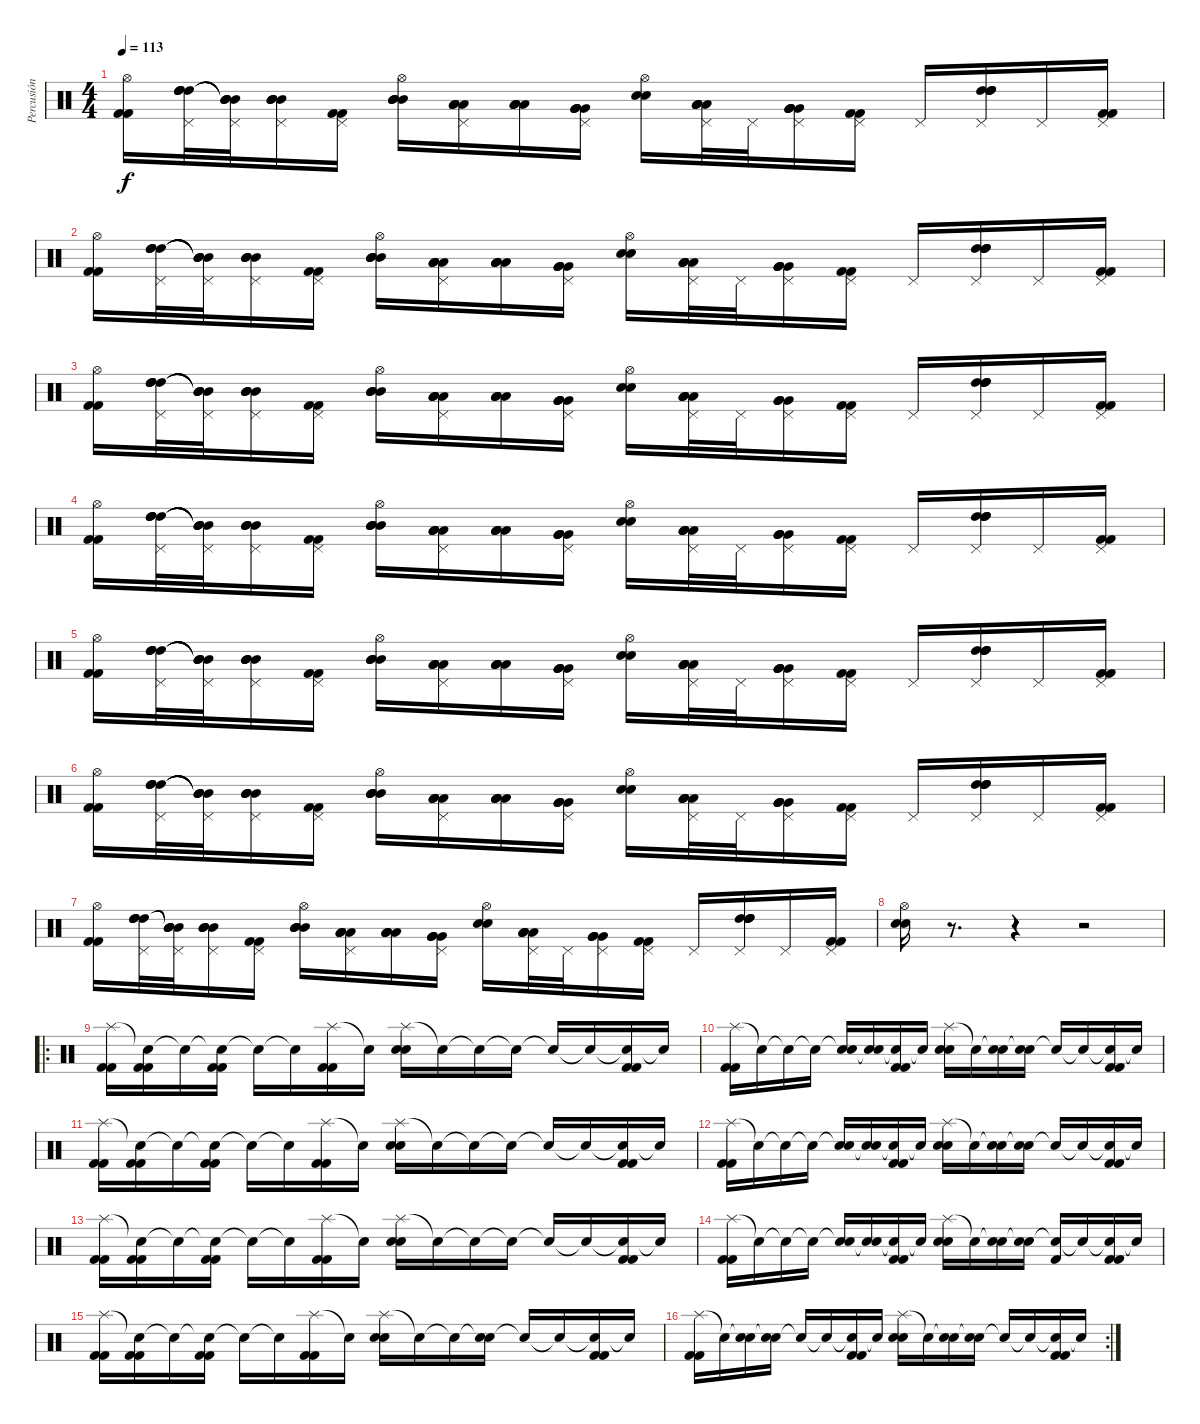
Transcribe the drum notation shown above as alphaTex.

\track ("Percusión" "Percusión") {instrument percussion}
\staff {score}
\articulation defaults
\ts (4 4)
\tempo 113
\clef neutral
\ks c
("Hi-Hat (open)" "Kick (hit) 2" "Kick (hit) 2").16{dy f} ("Pedal Hi-Hat (hit)" "High Tom (hit)" "High Tom (hit)" "High Tom (hit)" "High Tom (hit)").32 ("Pedal Hi-Hat (hit)" "Mid Tom (hit)"{t} "Mid Tom (hit)"{t} "Mid Tom (hit)"{t} "Mid Tom (hit)"{t}).32 ("Pedal Hi-Hat (hit)" "Mid Tom (hit)" "Mid Tom (hit)" "Mid Tom (hit)" "Mid Tom (hit)").16 ("Pedal Hi-Hat (hit)" "Kick (hit) 2" "Kick (hit) 2").16 ("Hi-Hat (open)" "Mid Tom (hit)" "Mid Tom (hit)" "Mid Tom (hit)" "Mid Tom (hit)").16 ("Pedal Hi-Hat (hit)" "Low Tom (hit)" "Low Tom (hit)" "Low Tom (hit)" "Low Tom (hit)").16 ("Low Tom (hit)" "Low Tom (hit)" "Low Tom (hit)" "Low Tom (hit)").16 ("Pedal Hi-Hat (hit)" "Very Low Tom (hit)" "Very Low Tom (hit)" "Very Low Tom (hit)" "Very Low Tom (hit)").16 ("Hi-Hat (open)" "Electric Snare (hit)" "Electric Snare (hit)").16 ("Pedal Hi-Hat (hit)" "Low Tom (hit)" "Low Tom (hit)" "Low Tom (hit)" "Low Tom (hit)").32 "Pedal Hi-Hat (hit)".32 ("Pedal Hi-Hat (hit)" "Very Low Tom (hit)" "Very Low Tom (hit)" "Very Low Tom (hit)" "Very Low Tom (hit)").16 ("Pedal Hi-Hat (hit)" "Kick (hit) 2" "Kick (hit) 2").16 "Pedal Hi-Hat (hit)".16 ("Pedal Hi-Hat (hit)" "High Tom (hit)" "High Tom (hit)" "High Tom (hit)" "High Tom (hit)").16 "Pedal Hi-Hat (hit)".16 ("Pedal Hi-Hat (hit)" "Kick (hit) 2" "Kick (hit) 2").16 |
("Hi-Hat (open)" "Kick (hit) 2" "Kick (hit) 2").16 ("Pedal Hi-Hat (hit)" "High Tom (hit)" "High Tom (hit)" "High Tom (hit)" "High Tom (hit)").32 ("Pedal Hi-Hat (hit)" "Mid Tom (hit)"{t} "Mid Tom (hit)"{t} "Mid Tom (hit)"{t} "Mid Tom (hit)"{t}).32 ("Pedal Hi-Hat (hit)" "Mid Tom (hit)" "Mid Tom (hit)" "Mid Tom (hit)" "Mid Tom (hit)").16 ("Pedal Hi-Hat (hit)" "Kick (hit) 2" "Kick (hit) 2").16 ("Hi-Hat (open)" "Mid Tom (hit)" "Mid Tom (hit)" "Mid Tom (hit)" "Mid Tom (hit)").16 ("Pedal Hi-Hat (hit)" "Low Tom (hit)" "Low Tom (hit)" "Low Tom (hit)" "Low Tom (hit)").16 ("Low Tom (hit)" "Low Tom (hit)" "Low Tom (hit)" "Low Tom (hit)").16 ("Pedal Hi-Hat (hit)" "Very Low Tom (hit)" "Very Low Tom (hit)" "Very Low Tom (hit)" "Very Low Tom (hit)").16 ("Hi-Hat (open)" "Electric Snare (hit)" "Electric Snare (hit)").16 ("Pedal Hi-Hat (hit)" "Low Tom (hit)" "Low Tom (hit)" "Low Tom (hit)" "Low Tom (hit)").32 "Pedal Hi-Hat (hit)".32 ("Pedal Hi-Hat (hit)" "Very Low Tom (hit)" "Very Low Tom (hit)" "Very Low Tom (hit)" "Very Low Tom (hit)").16 ("Pedal Hi-Hat (hit)" "Kick (hit) 2" "Kick (hit) 2").16 "Pedal Hi-Hat (hit)".16 ("Pedal Hi-Hat (hit)" "High Tom (hit)" "High Tom (hit)" "High Tom (hit)" "High Tom (hit)").16 "Pedal Hi-Hat (hit)".16 ("Pedal Hi-Hat (hit)" "Kick (hit) 2" "Kick (hit) 2").16 |
("Hi-Hat (open)" "Kick (hit) 2" "Kick (hit) 2").16 ("Pedal Hi-Hat (hit)" "High Tom (hit)" "High Tom (hit)" "High Tom (hit)" "High Tom (hit)").32 ("Pedal Hi-Hat (hit)" "Mid Tom (hit)"{t} "Mid Tom (hit)"{t} "Mid Tom (hit)"{t} "Mid Tom (hit)"{t}).32 ("Pedal Hi-Hat (hit)" "Mid Tom (hit)" "Mid Tom (hit)" "Mid Tom (hit)" "Mid Tom (hit)").16 ("Pedal Hi-Hat (hit)" "Kick (hit) 2" "Kick (hit) 2").16 ("Hi-Hat (open)" "Mid Tom (hit)" "Mid Tom (hit)" "Mid Tom (hit)" "Mid Tom (hit)").16 ("Pedal Hi-Hat (hit)" "Low Tom (hit)" "Low Tom (hit)" "Low Tom (hit)" "Low Tom (hit)").16 ("Low Tom (hit)" "Low Tom (hit)" "Low Tom (hit)" "Low Tom (hit)").16 ("Pedal Hi-Hat (hit)" "Very Low Tom (hit)" "Very Low Tom (hit)" "Very Low Tom (hit)" "Very Low Tom (hit)").16 ("Hi-Hat (open)" "Electric Snare (hit)" "Electric Snare (hit)").16 ("Pedal Hi-Hat (hit)" "Low Tom (hit)" "Low Tom (hit)" "Low Tom (hit)" "Low Tom (hit)").32 "Pedal Hi-Hat (hit)".32 ("Pedal Hi-Hat (hit)" "Very Low Tom (hit)" "Very Low Tom (hit)" "Very Low Tom (hit)" "Very Low Tom (hit)").16 ("Pedal Hi-Hat (hit)" "Kick (hit) 2" "Kick (hit) 2").16 "Pedal Hi-Hat (hit)".16 ("Pedal Hi-Hat (hit)" "High Tom (hit)" "High Tom (hit)" "High Tom (hit)" "High Tom (hit)").16 "Pedal Hi-Hat (hit)".16 ("Pedal Hi-Hat (hit)" "Kick (hit) 2" "Kick (hit) 2").16 |
("Hi-Hat (open)" "Kick (hit) 2" "Kick (hit) 2").16 ("Pedal Hi-Hat (hit)" "High Tom (hit)" "High Tom (hit)" "High Tom (hit)" "High Tom (hit)").32 ("Pedal Hi-Hat (hit)" "Mid Tom (hit)"{t} "Mid Tom (hit)"{t} "Mid Tom (hit)"{t} "Mid Tom (hit)"{t}).32 ("Pedal Hi-Hat (hit)" "Mid Tom (hit)" "Mid Tom (hit)" "Mid Tom (hit)" "Mid Tom (hit)").16 ("Pedal Hi-Hat (hit)" "Kick (hit) 2" "Kick (hit) 2").16 ("Hi-Hat (open)" "Mid Tom (hit)" "Mid Tom (hit)" "Mid Tom (hit)" "Mid Tom (hit)").16 ("Pedal Hi-Hat (hit)" "Low Tom (hit)" "Low Tom (hit)" "Low Tom (hit)" "Low Tom (hit)").16 ("Low Tom (hit)" "Low Tom (hit)" "Low Tom (hit)" "Low Tom (hit)").16 ("Pedal Hi-Hat (hit)" "Very Low Tom (hit)" "Very Low Tom (hit)" "Very Low Tom (hit)" "Very Low Tom (hit)").16 ("Hi-Hat (open)" "Electric Snare (hit)" "Electric Snare (hit)").16 ("Pedal Hi-Hat (hit)" "Low Tom (hit)" "Low Tom (hit)" "Low Tom (hit)" "Low Tom (hit)").32 "Pedal Hi-Hat (hit)".32 ("Pedal Hi-Hat (hit)" "Very Low Tom (hit)" "Very Low Tom (hit)" "Very Low Tom (hit)" "Very Low Tom (hit)").16 ("Pedal Hi-Hat (hit)" "Kick (hit) 2" "Kick (hit) 2").16 "Pedal Hi-Hat (hit)".16 ("Pedal Hi-Hat (hit)" "High Tom (hit)" "High Tom (hit)" "High Tom (hit)" "High Tom (hit)").16 "Pedal Hi-Hat (hit)".16 ("Pedal Hi-Hat (hit)" "Kick (hit) 2" "Kick (hit) 2").16 |
("Hi-Hat (open)" "Kick (hit) 2" "Kick (hit) 2").16 ("Pedal Hi-Hat (hit)" "High Tom (hit)" "High Tom (hit)" "High Tom (hit)" "High Tom (hit)").32 ("Pedal Hi-Hat (hit)" "Mid Tom (hit)"{t} "Mid Tom (hit)"{t} "Mid Tom (hit)"{t} "Mid Tom (hit)"{t}).32 ("Pedal Hi-Hat (hit)" "Mid Tom (hit)" "Mid Tom (hit)" "Mid Tom (hit)" "Mid Tom (hit)").16 ("Pedal Hi-Hat (hit)" "Kick (hit) 2" "Kick (hit) 2").16 ("Hi-Hat (open)" "Mid Tom (hit)" "Mid Tom (hit)" "Mid Tom (hit)" "Mid Tom (hit)").16 ("Pedal Hi-Hat (hit)" "Low Tom (hit)" "Low Tom (hit)" "Low Tom (hit)" "Low Tom (hit)").16 ("Low Tom (hit)" "Low Tom (hit)" "Low Tom (hit)" "Low Tom (hit)").16 ("Pedal Hi-Hat (hit)" "Very Low Tom (hit)" "Very Low Tom (hit)" "Very Low Tom (hit)" "Very Low Tom (hit)").16 ("Hi-Hat (open)" "Electric Snare (hit)" "Electric Snare (hit)").16 ("Pedal Hi-Hat (hit)" "Low Tom (hit)" "Low Tom (hit)" "Low Tom (hit)" "Low Tom (hit)").32 "Pedal Hi-Hat (hit)".32 ("Pedal Hi-Hat (hit)" "Very Low Tom (hit)" "Very Low Tom (hit)" "Very Low Tom (hit)" "Very Low Tom (hit)").16 ("Pedal Hi-Hat (hit)" "Kick (hit) 2" "Kick (hit) 2").16 "Pedal Hi-Hat (hit)".16 ("Pedal Hi-Hat (hit)" "High Tom (hit)" "High Tom (hit)" "High Tom (hit)" "High Tom (hit)").16 "Pedal Hi-Hat (hit)".16 ("Pedal Hi-Hat (hit)" "Kick (hit) 2" "Kick (hit) 2").16 |
("Hi-Hat (open)" "Kick (hit) 2" "Kick (hit) 2").16 ("Pedal Hi-Hat (hit)" "High Tom (hit)" "High Tom (hit)" "High Tom (hit)" "High Tom (hit)").32 ("Pedal Hi-Hat (hit)" "Mid Tom (hit)"{t} "Mid Tom (hit)"{t} "Mid Tom (hit)"{t} "Mid Tom (hit)"{t}).32 ("Pedal Hi-Hat (hit)" "Mid Tom (hit)" "Mid Tom (hit)" "Mid Tom (hit)" "Mid Tom (hit)").16 ("Pedal Hi-Hat (hit)" "Kick (hit) 2" "Kick (hit) 2").16 ("Hi-Hat (open)" "Mid Tom (hit)" "Mid Tom (hit)" "Mid Tom (hit)" "Mid Tom (hit)").16 ("Pedal Hi-Hat (hit)" "Low Tom (hit)" "Low Tom (hit)" "Low Tom (hit)" "Low Tom (hit)").16 ("Low Tom (hit)" "Low Tom (hit)" "Low Tom (hit)" "Low Tom (hit)").16 ("Pedal Hi-Hat (hit)" "Very Low Tom (hit)" "Very Low Tom (hit)" "Very Low Tom (hit)" "Very Low Tom (hit)").16 ("Hi-Hat (open)" "Electric Snare (hit)" "Electric Snare (hit)").16 ("Pedal Hi-Hat (hit)" "Low Tom (hit)" "Low Tom (hit)" "Low Tom (hit)" "Low Tom (hit)").32 "Pedal Hi-Hat (hit)".32 ("Pedal Hi-Hat (hit)" "Very Low Tom (hit)" "Very Low Tom (hit)" "Very Low Tom (hit)" "Very Low Tom (hit)").16 ("Pedal Hi-Hat (hit)" "Kick (hit) 2" "Kick (hit) 2").16 "Pedal Hi-Hat (hit)".16 ("Pedal Hi-Hat (hit)" "High Tom (hit)" "High Tom (hit)" "High Tom (hit)" "High Tom (hit)").16 "Pedal Hi-Hat (hit)".16 ("Pedal Hi-Hat (hit)" "Kick (hit) 2" "Kick (hit) 2").16 |
("Hi-Hat (open)" "Kick (hit) 2" "Kick (hit) 2").16 ("Pedal Hi-Hat (hit)" "High Tom (hit)" "High Tom (hit)" "High Tom (hit)" "High Tom (hit)").32 ("Pedal Hi-Hat (hit)" "Mid Tom (hit)"{t} "Mid Tom (hit)"{t} "Mid Tom (hit)"{t} "Mid Tom (hit)"{t}).32 ("Pedal Hi-Hat (hit)" "Mid Tom (hit)" "Mid Tom (hit)" "Mid Tom (hit)" "Mid Tom (hit)").16 ("Pedal Hi-Hat (hit)" "Kick (hit) 2" "Kick (hit) 2").16 ("Hi-Hat (open)" "Mid Tom (hit)" "Mid Tom (hit)" "Mid Tom (hit)" "Mid Tom (hit)").16 ("Pedal Hi-Hat (hit)" "Low Tom (hit)" "Low Tom (hit)" "Low Tom (hit)" "Low Tom (hit)").16 ("Low Tom (hit)" "Low Tom (hit)" "Low Tom (hit)" "Low Tom (hit)").16 ("Pedal Hi-Hat (hit)" "Very Low Tom (hit)" "Very Low Tom (hit)" "Very Low Tom (hit)" "Very Low Tom (hit)").16 ("Hi-Hat (open)" "Electric Snare (hit)" "Electric Snare (hit)").16 ("Pedal Hi-Hat (hit)" "Low Tom (hit)" "Low Tom (hit)" "Low Tom (hit)" "Low Tom (hit)").32 "Pedal Hi-Hat (hit)".32 ("Pedal Hi-Hat (hit)" "Very Low Tom (hit)" "Very Low Tom (hit)" "Very Low Tom (hit)" "Very Low Tom (hit)").16 ("Pedal Hi-Hat (hit)" "Kick (hit) 2" "Kick (hit) 2").16 "Pedal Hi-Hat (hit)".16 ("Pedal Hi-Hat (hit)" "High Tom (hit)" "High Tom (hit)" "High Tom (hit)" "High Tom (hit)").16 "Pedal Hi-Hat (hit)".16 ("Pedal Hi-Hat (hit)" "Kick (hit) 2" "Kick (hit) 2").16 |
("Hi-Hat (open)" "Electric Snare (hit)" "Electric Snare (hit)").16 r.8{d} r.4 r.2 |
\ro
("Splash (hit)" "Kick (hit) 2" "Kick (hit) 2").16 ("Snare (hit)"{t} "Kick (hit) 2" "Kick (hit) 2").16 "Snare (hit)"{t}.16 ("Snare (hit)"{t} "Kick (hit) 2" "Kick (hit) 2").16 "Snare (hit)"{t}.16 "Snare (hit)"{t}.16 ("Splash (hit)" "Kick (hit) 2" "Kick (hit) 2").16 "Snare (hit)"{t}.16 ("Splash (hit)" "Electric Snare (hit)" "Electric Snare (hit)").16 "Snare (hit)"{t}.16 "Snare (hit)"{t}.16 "Snare (hit)"{t}.16 "Snare (hit)"{t}.16 "Snare (hit)"{t}.16 ("Snare (hit)"{t} "Kick (hit) 2" "Kick (hit) 2").16 "Snare (hit)"{t}.16 |
("Splash (hit)" "Kick (hit) 2" "Kick (hit) 2").16 "Snare (hit)"{t}.16 "Snare (hit)"{t}.16 "Snare (hit)"{t}.16 ("Snare (hit)"{t} "Electric Snare (hit)").16 ("Snare (hit)"{t} "Electric Snare (hit)").16 ("Snare (hit)"{t} "Kick (hit) 2" "Kick (hit) 2").16 "Snare (hit)"{t}.16 ("Splash (hit)" "Electric Snare (hit)" "Electric Snare (hit)").16 "Snare (hit)"{t}.16 ("Snare (hit)"{t} "Electric Snare (hit)").16 ("Snare (hit)"{t} "Electric Snare (hit)").16 "Snare (hit)"{t}.16 "Snare (hit)"{t}.16 ("Snare (hit)"{t} "Kick (hit) 2" "Kick (hit) 2").16 "Snare (hit)"{t}.16 |
("Splash (hit)" "Kick (hit) 2" "Kick (hit) 2").16 ("Snare (hit)"{t} "Kick (hit) 2" "Kick (hit) 2").16 "Snare (hit)"{t}.16 ("Snare (hit)"{t} "Kick (hit) 2" "Kick (hit) 2").16 "Snare (hit)"{t}.16 "Snare (hit)"{t}.16 ("Splash (hit)" "Kick (hit) 2" "Kick (hit) 2").16 "Snare (hit)"{t}.16 ("Splash (hit)" "Electric Snare (hit)" "Electric Snare (hit)").16 "Snare (hit)"{t}.16 "Snare (hit)"{t}.16 "Snare (hit)"{t}.16 "Snare (hit)"{t}.16 "Snare (hit)"{t}.16 ("Snare (hit)"{t} "Kick (hit) 2" "Kick (hit) 2").16 "Snare (hit)"{t}.16 |
("Splash (hit)" "Kick (hit) 2" "Kick (hit) 2").16 "Snare (hit)"{t}.16 "Snare (hit)"{t}.16 "Snare (hit)"{t}.16 ("Snare (hit)"{t} "Electric Snare (hit)").16 ("Snare (hit)"{t} "Electric Snare (hit)").16 ("Snare (hit)"{t} "Kick (hit) 2" "Kick (hit) 2").16 "Snare (hit)"{t}.16 ("Splash (hit)" "Electric Snare (hit)" "Electric Snare (hit)").16 "Snare (hit)"{t}.16 ("Snare (hit)"{t} "Electric Snare (hit)").16 ("Snare (hit)"{t} "Electric Snare (hit)").16 "Snare (hit)"{t}.16 "Snare (hit)"{t}.16 ("Snare (hit)"{t} "Kick (hit) 2" "Kick (hit) 2").16 "Snare (hit)"{t}.16 |
("Splash (hit)" "Kick (hit) 2" "Kick (hit) 2").16 ("Snare (hit)"{t} "Kick (hit) 2" "Kick (hit) 2").16 "Snare (hit)"{t}.16 ("Snare (hit)"{t} "Kick (hit) 2" "Kick (hit) 2").16 "Snare (hit)"{t}.16 "Snare (hit)"{t}.16 ("Splash (hit)" "Kick (hit) 2" "Kick (hit) 2").16 "Snare (hit)"{t}.16 ("Splash (hit)" "Electric Snare (hit)" "Electric Snare (hit)").16 "Snare (hit)"{t}.16 "Snare (hit)"{t}.16 "Snare (hit)"{t}.16 "Snare (hit)"{t}.16 "Snare (hit)"{t}.16 ("Snare (hit)"{t} "Kick (hit) 2" "Kick (hit) 2").16 "Snare (hit)"{t}.16 |
("Splash (hit)" "Kick (hit) 2" "Kick (hit) 2").16 "Snare (hit)"{t}.16 "Snare (hit)"{t}.16 "Snare (hit)"{t}.16 ("Snare (hit)"{t} "Electric Snare (hit)").16 ("Snare (hit)"{t} "Electric Snare (hit)").16 ("Snare (hit)"{t} "Kick (hit) 2" "Kick (hit) 2").16 "Snare (hit)"{t}.16 ("Splash (hit)" "Electric Snare (hit)" "Electric Snare (hit)").16 "Snare (hit)"{t}.16 ("Snare (hit)"{t} "Electric Snare (hit)").16 ("Snare (hit)"{t} "Electric Snare (hit)").16 ("Snare (hit)"{t} "Kick (hit) 2").16 "Snare (hit)"{t}.16 ("Snare (hit)"{t} "Kick (hit) 2" "Kick (hit) 2").16 "Snare (hit)"{t}.16 |
("Splash (hit)" "Kick (hit) 2" "Kick (hit) 2").16 ("Snare (hit)"{t} "Kick (hit) 2" "Kick (hit) 2").16 "Snare (hit)"{t}.16 ("Snare (hit)"{t} "Kick (hit) 2" "Kick (hit) 2").16 "Snare (hit)"{t}.16 "Snare (hit)"{t}.16 ("Splash (hit)" "Kick (hit) 2" "Kick (hit) 2").16 "Snare (hit)"{t}.16 ("Splash (hit)" "Electric Snare (hit)" "Electric Snare (hit)").16 "Snare (hit)"{t}.16 "Snare (hit)"{t}.16 ("Snare (hit)"{t} "Electric Snare (hit)").16 "Snare (hit)"{t}.16 "Snare (hit)"{t}.16 ("Snare (hit)"{t} "Kick (hit) 2" "Kick (hit) 2").16 "Snare (hit)"{t}.16 |
\rc 2
("Splash (hit)" "Kick (hit) 2" "Kick (hit) 2").16 "Snare (hit)"{t}.16 ("Snare (hit)"{t} "Electric Snare (hit)").16 ("Snare (hit)"{t} "Electric Snare (hit)").16 "Snare (hit)"{t}.16 "Snare (hit)"{t}.16 ("Snare (hit)"{t} "Kick (hit) 2" "Kick (hit) 2").16 "Snare (hit)"{t}.16 ("Splash (hit)" "Electric Snare (hit)" "Electric Snare (hit)").16 "Snare (hit)"{t}.16 ("Snare (hit)"{t} "Electric Snare (hit)").16 ("Snare (hit)"{t} "Electric Snare (hit)").16 "Snare (hit)"{t}.16 "Snare (hit)"{t}.16 ("Snare (hit)"{t} "Kick (hit) 2" "Kick (hit) 2").16 "Snare (hit)"{t}.16
